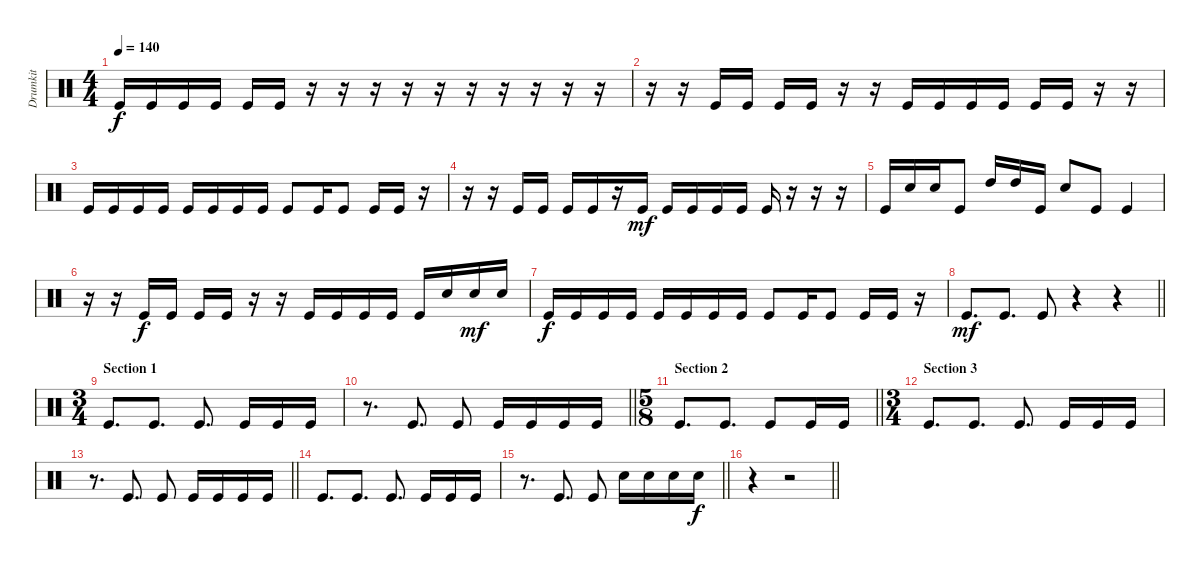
\track ("Drumkit" "Drumkit") {instrument percussion}
\staff {score}
\articulation defaults
\ts (4 4)
\tempo 140
\clef neutral
\ks c "Kick (hit)".16{dy f} "Kick (hit)".16 "Kick (hit)".16 "Kick (hit)".16 "Kick (hit)".16 "Kick (hit)".16
r.16 r.16 r.16 r.16 r.16 r.16 r.16 r.16 r.16 r.16 |
r.16 r.16 "Kick (hit)".16 "Kick (hit)".16 "Kick (hit)".16 "Kick (hit)".16 r.16 r.16 "Kick (hit)".16 "Kick (hit)".16 "Kick (hit)".16 "Kick (hit)".16 "Kick (hit)".16 "Kick (hit)".16 r.16 r.16 |
"Kick (hit)".16 "Kick (hit)".16 "Kick (hit)".16 "Kick (hit)".16 "Kick (hit)".16 "Kick (hit)".16 "Kick (hit)".16 "Kick (hit)".16 "Kick (hit)".8 "Kick (hit)".16 "Kick (hit)".8 "Kick (hit)".16 "Kick (hit)".16 r.16 |
r.16 r.16 "Kick (hit)".16 "Kick (hit)".16 "Kick (hit)".16 "Kick (hit)".16 r.16 "Kick (hit)".16{dy mf} "Kick (hit)".16 "Kick (hit)".16 "Kick (hit)".16 "Kick (hit)".16 "Kick (hit)".16 r.16 r.16 r.16 |
"Kick (hit)".16 "Snare (hit) 2".16 "Snare (hit) 2".16 "Kick (hit)".8 "High Tom (hit)".16 "High Tom (hit)".16 "Kick (hit)".16 "Snare (hit) 2".8 "Kick (hit)".8 "Kick (hit)".4 |
r.16 r.16 "Kick (hit)".16{dy f} "Kick (hit)".16 "Kick (hit)".16 "Kick (hit)".16 r.16 r.16 "Kick (hit)".16 "Kick (hit)".16 "Kick (hit)".16 "Kick (hit)".16 "Kick (hit)".16 "Snare (hit) 2".16 "Snare (hit) 2".16{dy mf} "Snare (hit) 2".16 |
"Kick (hit)".16{dy f} "Kick (hit)".16 "Kick (hit)".16 "Kick (hit)".16 "Kick (hit)".16 "Kick (hit)".16 "Kick (hit)".16 "Kick (hit)".16 "Kick (hit)".8 "Kick (hit)".16 "Kick (hit)".8 "Kick (hit)".16 "Kick (hit)".16 r.16 |
\barLineRight lightlight "Kick (hit)".8{d dy mf} "Kick (hit)".8{d} "Kick (hit)".8
r.4 r.4 |
\ts (3 4)
\section ("" "Section 1")
"Kick (hit)".8{d} "Kick (hit)".8{d} "Kick (hit)".8{d} "Kick (hit)".16 "Kick (hit)".16 "Kick (hit)".16 |
\barLineRight lightlight
r.8{d} "Kick (hit)".8{d} "Kick (hit)".8 "Kick (hit)".16 "Kick (hit)".16 "Kick (hit)".16 "Kick (hit)".16 |
\ts (5 8)
\section ("" "Section 2")
\barLineRight lightlight "Kick (hit)".8{d} "Kick (hit)".8{d} "Kick (hit)".8 "Kick (hit)".16 "Kick (hit)".16
|
\ts (3 4)
\section ("" "Section 3")
"Kick (hit)".8{d} "Kick (hit)".8{d} "Kick (hit)".8{d} "Kick (hit)".16 "Kick (hit)".16 "Kick (hit)".16 |
\barLineRight lightlight
r.8{d} "Kick (hit)".8{d} "Kick (hit)".8 "Kick (hit)".16 "Kick (hit)".16 "Kick (hit)".16 "Kick (hit)".16 |
"Kick (hit)".8{d} "Kick (hit)".8{d} "Kick (hit)".8{d} "Kick (hit)".16 "Kick (hit)".16 "Kick (hit)".16 |
\barLineRight lightlight
r.8{d} "Kick (hit)".8{d} "Kick (hit)".8 "Snare (hit) 2".16 "Snare (hit) 2".16 "Snare (hit) 2".16 "Snare (hit) 2".16{dy f} |
\barLineRight lightlight
r.4 r.2
